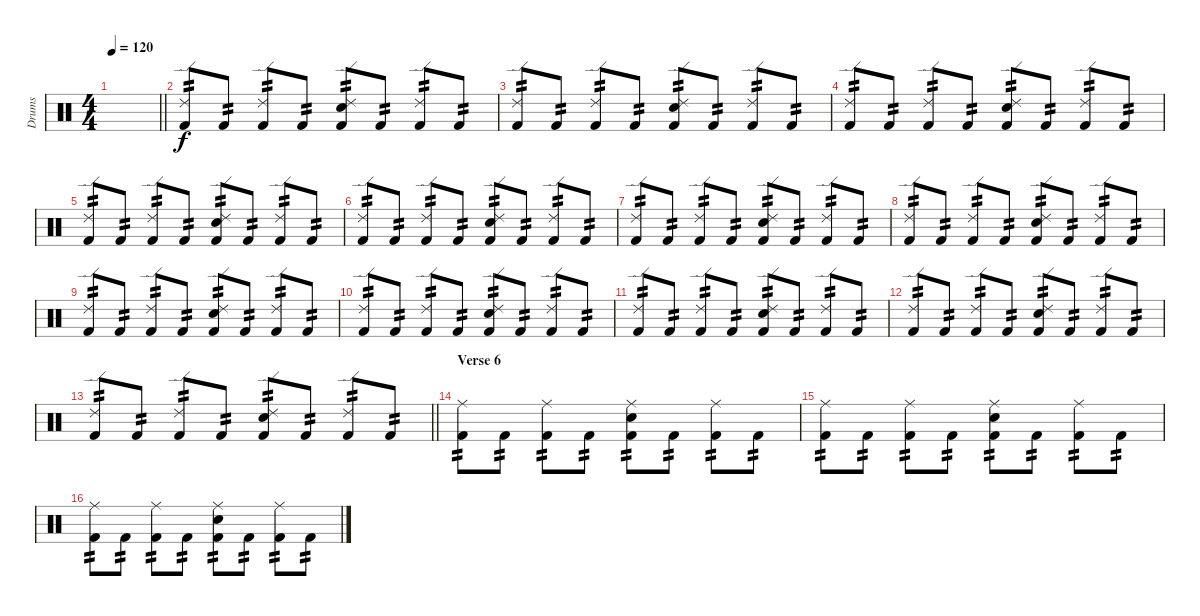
\track ("Drums " "Drums ") {instrument percussion}
\staff {score}
\articulation defaults
\ts (4 4)
\tempo 120
\clef neutral
\barLineRight lightlight
\ks c
|
\section ("" "")
("Ride (edge) 2" "Kick (hit) 2").8{tp 2 dy f volume 14} "Kick (hit) 2".8{tp 2} ("Ride (edge) 2" "Kick (hit) 2").8{tp 2} "Kick (hit) 2".8{tp 2} ("Snare (hit) 2" "Ride (edge) 2" "Kick (hit) 2").8{tp 2} "Kick (hit) 2".8{tp 2} ("Ride (edge) 2" "Kick (hit) 2").8{tp 2} "Kick (hit) 2".8{tp 2} |
("Ride (edge) 2" "Kick (hit) 2").8{tp 2} "Kick (hit) 2".8{tp 2} ("Ride (edge) 2" "Kick (hit) 2").8{tp 2} "Kick (hit) 2".8{tp 2} ("Snare (hit) 2" "Ride (edge) 2" "Kick (hit) 2").8{tp 2} "Kick (hit) 2".8{tp 2} ("Ride (edge) 2" "Kick (hit) 2").8{tp 2} "Kick (hit) 2".8{tp 2} |
("Ride (edge) 2" "Kick (hit) 2").8{tp 2} "Kick (hit) 2".8{tp 2} ("Ride (edge) 2" "Kick (hit) 2").8{tp 2} "Kick (hit) 2".8{tp 2} ("Snare (hit) 2" "Ride (edge) 2" "Kick (hit) 2").8{tp 2} "Kick (hit) 2".8{tp 2} ("Ride (edge) 2" "Kick (hit) 2").8{tp 2} "Kick (hit) 2".8{tp 2} |
("Ride (edge) 2" "Kick (hit) 2").8{tp 2} "Kick (hit) 2".8{tp 2} ("Ride (edge) 2" "Kick (hit) 2").8{tp 2} "Kick (hit) 2".8{tp 2} ("Snare (hit) 2" "Ride (edge) 2" "Kick (hit) 2").8{tp 2} "Kick (hit) 2".8{tp 2} ("Ride (edge) 2" "Kick (hit) 2").8{tp 2} "Kick (hit) 2".8{tp 2} |
("Ride (edge) 2" "Kick (hit) 2").8{tp 2} "Kick (hit) 2".8{tp 2} ("Ride (edge) 2" "Kick (hit) 2").8{tp 2} "Kick (hit) 2".8{tp 2} ("Snare (hit) 2" "Ride (edge) 2" "Kick (hit) 2").8{tp 2} "Kick (hit) 2".8{tp 2} ("Ride (edge) 2" "Kick (hit) 2").8{tp 2} "Kick (hit) 2".8{tp 2} |
("Ride (edge) 2" "Kick (hit) 2").8{tp 2} "Kick (hit) 2".8{tp 2} ("Ride (edge) 2" "Kick (hit) 2").8{tp 2} "Kick (hit) 2".8{tp 2} ("Snare (hit) 2" "Ride (edge) 2" "Kick (hit) 2").8{tp 2} "Kick (hit) 2".8{tp 2} ("Ride (edge) 2" "Kick (hit) 2").8{tp 2} "Kick (hit) 2".8{tp 2} |
("Ride (edge) 2" "Kick (hit) 2").8{tp 2} "Kick (hit) 2".8{tp 2} ("Ride (edge) 2" "Kick (hit) 2").8{tp 2} "Kick (hit) 2".8{tp 2} ("Snare (hit) 2" "Ride (edge) 2" "Kick (hit) 2").8{tp 2} "Kick (hit) 2".8{tp 2} ("Ride (edge) 2" "Kick (hit) 2").8{tp 2} "Kick (hit) 2".8{tp 2} |
("Ride (edge) 2" "Kick (hit) 2").8{tp 2} "Kick (hit) 2".8{tp 2} ("Ride (edge) 2" "Kick (hit) 2").8{tp 2} "Kick (hit) 2".8{tp 2} ("Snare (hit) 2" "Ride (edge) 2" "Kick (hit) 2").8{tp 2} "Kick (hit) 2".8{tp 2} ("Ride (edge) 2" "Kick (hit) 2").8{tp 2} "Kick (hit) 2".8{tp 2} |
("Ride (edge) 2" "Kick (hit) 2").8{tp 2} "Kick (hit) 2".8{tp 2} ("Ride (edge) 2" "Kick (hit) 2").8{tp 2} "Kick (hit) 2".8{tp 2} ("Snare (hit) 2" "Ride (edge) 2" "Kick (hit) 2").8{tp 2} "Kick (hit) 2".8{tp 2} ("Ride (edge) 2" "Kick (hit) 2").8{tp 2} "Kick (hit) 2".8{tp 2} |
("Ride (edge) 2" "Kick (hit) 2").8{tp 2} "Kick (hit) 2".8{tp 2} ("Ride (edge) 2" "Kick (hit) 2").8{tp 2} "Kick (hit) 2".8{tp 2} ("Snare (hit) 2" "Ride (edge) 2" "Kick (hit) 2").8{tp 2} "Kick (hit) 2".8{tp 2} ("Ride (edge) 2" "Kick (hit) 2").8{tp 2} "Kick (hit) 2".8{tp 2} |
("Ride (edge) 2" "Kick (hit) 2").8{tp 2} "Kick (hit) 2".8{tp 2} ("Ride (edge) 2" "Kick (hit) 2").8{tp 2} "Kick (hit) 2".8{tp 2} ("Snare (hit) 2" "Ride (edge) 2" "Kick (hit) 2").8{tp 2} "Kick (hit) 2".8{tp 2} ("Ride (edge) 2" "Kick (hit) 2").8{tp 2} "Kick (hit) 2".8{tp 2} |
\barLineRight lightlight
("Ride (edge) 2" "Kick (hit) 2").8{tp 2} "Kick (hit) 2".8{tp 2} ("Ride (edge) 2" "Kick (hit) 2").8{tp 2} "Kick (hit) 2".8{tp 2} ("Snare (hit) 2" "Ride (edge) 2" "Kick (hit) 2").8{tp 2} "Kick (hit) 2".8{tp 2} ("Ride (edge) 2" "Kick (hit) 2").8{tp 2} "Kick (hit) 2".8{tp 2} |
\section ("" "Verse 6")
("Ride (middle)" "Kick (hit) 2").8{tp 2} "Kick (hit) 2".8{tp 2} ("Ride (middle)" "Kick (hit) 2").8{tp 2} "Kick (hit) 2".8{tp 2} ("Snare (hit) 2" "Ride (middle)" "Kick (hit) 2").8{tp 2} "Kick (hit) 2".8{tp 2} ("Ride (middle)" "Kick (hit) 2").8{tp 2} "Kick (hit) 2".8{tp 2} |
("Ride (middle)" "Kick (hit) 2").8{tp 2} "Kick (hit) 2".8{tp 2} ("Ride (middle)" "Kick (hit) 2").8{tp 2} "Kick (hit) 2".8{tp 2} ("Snare (hit) 2" "Ride (middle)" "Kick (hit) 2").8{tp 2} "Kick (hit) 2".8{tp 2} ("Ride (middle)" "Kick (hit) 2").8{tp 2} "Kick (hit) 2".8{tp 2} |
("Ride (middle)" "Kick (hit) 2").8{tp 2} "Kick (hit) 2".8{tp 2} ("Ride (middle)" "Kick (hit) 2").8{tp 2} "Kick (hit) 2".8{tp 2} ("Snare (hit) 2" "Ride (middle)" "Kick (hit) 2").8{tp 2} "Kick (hit) 2".8{tp 2} ("Ride (middle)" "Kick (hit) 2").8{tp 2} "Kick (hit) 2".8{tp 2}
